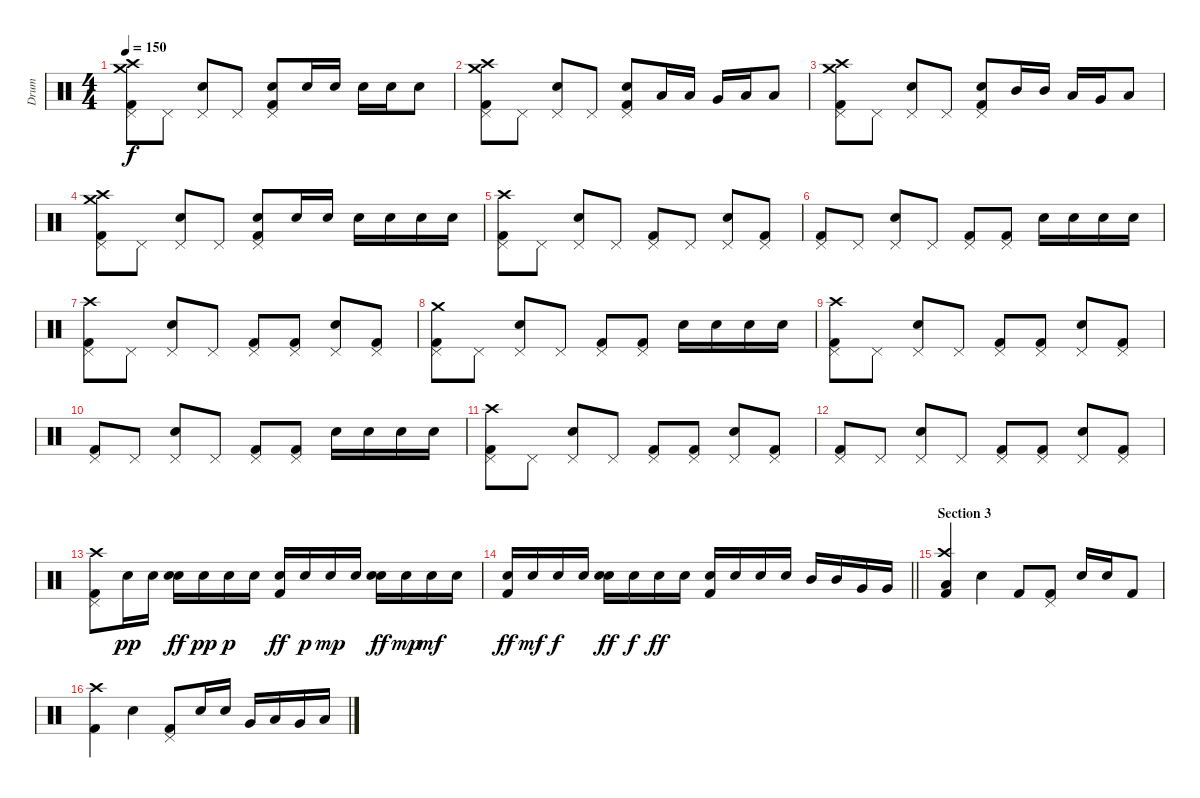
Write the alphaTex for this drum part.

\track ("Drum" "Drum") {instrument percussion}
\staff {score}
\articulation defaults
\ts (4 4)
\tempo 150
\clef neutral
\ks c
("Pedal Hi-Hat (hit)" "Kick (hit) 2" "Crash high (hit)" "Crash medium (hit)").8{dy f} "Pedal Hi-Hat (hit)".8 ("Pedal Hi-Hat (hit)" "Electric Snare (hit)").8 "Pedal Hi-Hat (hit)".8 ("Pedal Hi-Hat (hit)" "Electric Snare (hit)" "Kick (hit) 2").8 "Electric Snare (hit)".16 "Electric Snare (hit)".16 "Electric Snare (hit)".16 "Electric Snare (hit)".16 "Electric Snare (hit)".8 |
("Pedal Hi-Hat (hit)" "Kick (hit) 2" "Crash high (hit)" "Crash medium (hit)").8 "Pedal Hi-Hat (hit)".8 ("Pedal Hi-Hat (hit)" "Electric Snare (hit)").8 "Pedal Hi-Hat (hit)".8 ("Pedal Hi-Hat (hit)" "Electric Snare (hit)" "Kick (hit) 2").8 "Low Tom (hit)".16 "Low Tom (hit)".16 "Very Low Tom (hit)".16 "Low Floor Tom (hit)".16 "Low Floor Tom (hit)".8 |
("Pedal Hi-Hat (hit)" "Kick (hit) 2" "Crash high (hit)" "Crash medium (hit)").8 "Pedal Hi-Hat (hit)".8 ("Pedal Hi-Hat (hit)" "Electric Snare (hit)").8 "Pedal Hi-Hat (hit)".8 ("Pedal Hi-Hat (hit)" "Electric Snare (hit)" "Kick (hit) 2").8 "Mid Tom (hit)".16 "Mid Tom (hit)".16 "Low Tom (hit)".16 "Very Low Tom (hit)".16 "Low Floor Tom (hit)".8 |
("Pedal Hi-Hat (hit)" "Kick (hit) 2" "Crash high (hit)" "Crash medium (hit)").8 "Pedal Hi-Hat (hit)".8 ("Pedal Hi-Hat (hit)" "Electric Snare (hit)").8 "Pedal Hi-Hat (hit)".8 ("Pedal Hi-Hat (hit)" "Electric Snare (hit)" "Kick (hit) 2").8 "Electric Snare (hit)".16 "Electric Snare (hit)".16 "Electric Snare (hit)".16 "Electric Snare (hit)".16 "Electric Snare (hit)".16 "Electric Snare (hit)".16 |
("Kick (hit) 2" "Pedal Hi-Hat (hit)" "Crash high (hit)").8 "Pedal Hi-Hat (hit)".8 ("Pedal Hi-Hat (hit)" "Electric Snare (hit)").8 "Pedal Hi-Hat (hit)".8 ("Pedal Hi-Hat (hit)" "Kick (hit) 2").8 "Pedal Hi-Hat (hit)".8 ("Pedal Hi-Hat (hit)" "Electric Snare (hit)").8 ("Pedal Hi-Hat (hit)" "Kick (hit) 2").8 |
("Kick (hit) 2" "Pedal Hi-Hat (hit)").8 "Pedal Hi-Hat (hit)".8 ("Pedal Hi-Hat (hit)" "Electric Snare (hit)").8 "Pedal Hi-Hat (hit)".8 ("Pedal Hi-Hat (hit)" "Kick (hit) 2").8 ("Pedal Hi-Hat (hit)" "Kick (hit) 2").8 "Electric Snare (hit)".16 "Electric Snare (hit)".16 "Electric Snare (hit)".16 "Electric Snare (hit)".16 |
("Kick (hit) 2" "Pedal Hi-Hat (hit)" "Crash high (hit)").8 "Pedal Hi-Hat (hit)".8 ("Pedal Hi-Hat (hit)" "Electric Snare (hit)").8 "Pedal Hi-Hat (hit)".8 ("Pedal Hi-Hat (hit)" "Kick (hit) 2").8 ("Pedal Hi-Hat (hit)" "Kick (hit) 2").8 ("Pedal Hi-Hat (hit)" "Electric Snare (hit)").8 ("Pedal Hi-Hat (hit)" "Kick (hit) 2").8 |
("Kick (hit) 2" "Pedal Hi-Hat (hit)" "Crash medium (hit)").8 "Pedal Hi-Hat (hit)".8 ("Pedal Hi-Hat (hit)" "Electric Snare (hit)").8 "Pedal Hi-Hat (hit)".8 ("Pedal Hi-Hat (hit)" "Kick (hit) 2").8 ("Pedal Hi-Hat (hit)" "Kick (hit) 2").8 "Electric Snare (hit)".16 "Electric Snare (hit)".16 "Electric Snare (hit)".16 "Electric Snare (hit)".16 |
("Kick (hit) 2" "Pedal Hi-Hat (hit)" "Crash high (hit)").8 "Pedal Hi-Hat (hit)".8 ("Pedal Hi-Hat (hit)" "Electric Snare (hit)").8 "Pedal Hi-Hat (hit)".8 ("Pedal Hi-Hat (hit)" "Kick (hit) 2").8 ("Pedal Hi-Hat (hit)" "Kick (hit) 2").8 ("Pedal Hi-Hat (hit)" "Electric Snare (hit)").8 ("Pedal Hi-Hat (hit)" "Kick (hit) 2").8 |
("Kick (hit) 2" "Pedal Hi-Hat (hit)").8 "Pedal Hi-Hat (hit)".8 ("Pedal Hi-Hat (hit)" "Electric Snare (hit)").8 "Pedal Hi-Hat (hit)".8 ("Pedal Hi-Hat (hit)" "Kick (hit) 2").8 ("Pedal Hi-Hat (hit)" "Kick (hit) 2").8 "Electric Snare (hit)".16 "Electric Snare (hit)".16 "Electric Snare (hit)".16 "Electric Snare (hit)".16 |
("Kick (hit) 2" "Pedal Hi-Hat (hit)" "Crash high (hit)").8 "Pedal Hi-Hat (hit)".8 ("Pedal Hi-Hat (hit)" "Electric Snare (hit)").8 "Pedal Hi-Hat (hit)".8 ("Pedal Hi-Hat (hit)" "Kick (hit) 2").8 ("Pedal Hi-Hat (hit)" "Kick (hit) 2").8 ("Pedal Hi-Hat (hit)" "Electric Snare (hit)").8 ("Pedal Hi-Hat (hit)" "Kick (hit) 2").8 |
("Kick (hit) 2" "Pedal Hi-Hat (hit)").8 "Pedal Hi-Hat (hit)".8 ("Pedal Hi-Hat (hit)" "Electric Snare (hit)").8 "Pedal Hi-Hat (hit)".8 ("Pedal Hi-Hat (hit)" "Kick (hit) 2").8 ("Pedal Hi-Hat (hit)" "Kick (hit) 2").8 ("Pedal Hi-Hat (hit)" "Electric Snare (hit)").8 ("Pedal Hi-Hat (hit)" "Kick (hit) 2").8 |
("Kick (hit) 2" "Pedal Hi-Hat (hit)" "Crash high (hit)").8 "Electric Snare (hit)".16{dy pp} "Electric Snare (hit)".16 ("Electric Snare (hit)" "Electric Snare (hit)").16{dy ff} "Electric Snare (hit)".16{dy pp} "Electric Snare (hit)".16{dy p} "Electric Snare (hit)".16 ("Electric Snare (hit)" "Kick (hit) 2").16{dy ff} "Electric Snare (hit)".16{dy p} "Electric Snare (hit)".16{dy mp} "Electric Snare (hit)".16 ("Electric Snare (hit)" "Electric Snare (hit)").16{dy ff} "Electric Snare (hit)".16{dy mp} "Electric Snare (hit)".16{dy mf} "Electric Snare (hit)".16 |
\barLineRight lightlight
("Electric Snare (hit)" "Kick (hit) 2").16{dy ff} "Electric Snare (hit)".16{dy mf} "Electric Snare (hit)".16{dy f} "Electric Snare (hit)".16 ("Electric Snare (hit)" "Electric Snare (hit)").16{dy ff} "Electric Snare (hit)".16{dy f} "Electric Snare (hit)".16{dy ff} "Electric Snare (hit)".16 ("Electric Snare (hit)" "Kick (hit) 2").16 "Electric Snare (hit)".16 "Electric Snare (hit)".16 "Electric Snare (hit)".16 "Mid Tom (hit)".16 "Mid Tom (hit)".16 "Very Low Tom (hit)".16 "Very Low Tom (hit)".16 |
\section ("" "Section 3")
("Kick (hit) 2" "Crash high (hit)" "Low Floor Tom (hit)").4 "Electric Snare (hit)".4 "Kick (hit) 2".8 ("Kick (hit) 2" "Pedal Hi-Hat (hit)").8 "Electric Snare (hit)".16 "Snare (hit) 2".16 "Kick (hit) 2".8 |
("Kick (hit) 2" "Crash high (hit)").4 "Electric Snare (hit)".4 ("Kick (hit) 2" "Pedal Hi-Hat (hit)").8 "Electric Snare (hit)".16 "Snare (hit) 2".16 "Very Low Tom (hit)".16 "Low Tom (hit)".16 "Very Low Tom (hit)".16 "Low Floor Tom (hit)".16
